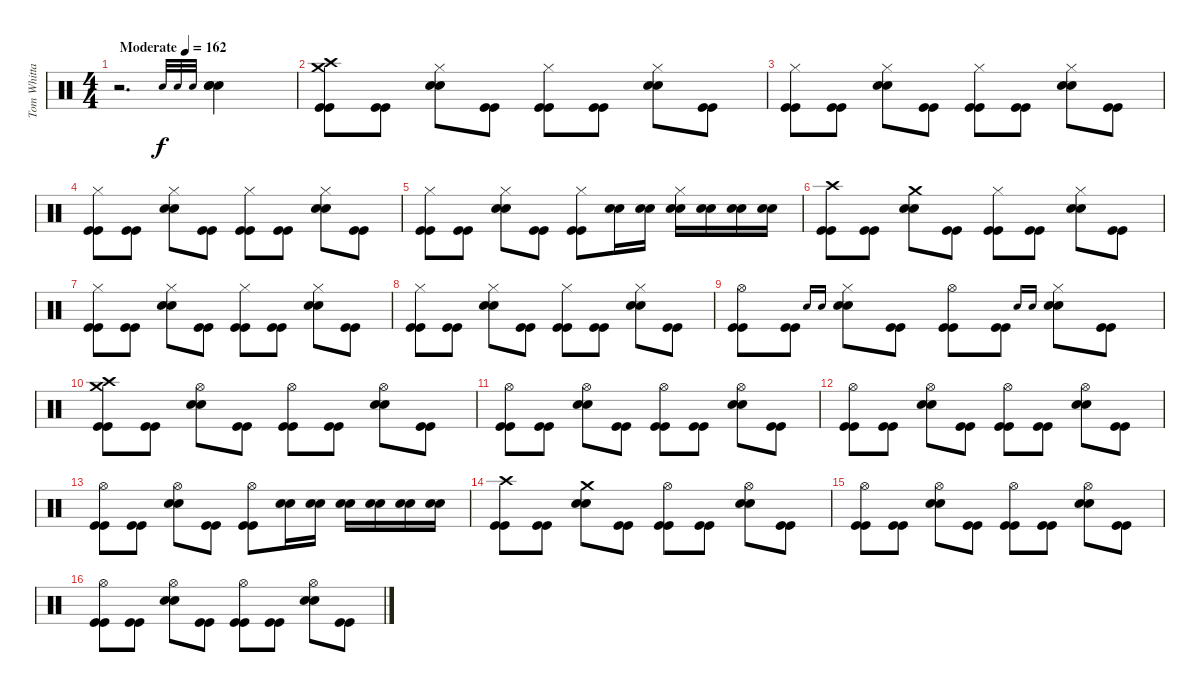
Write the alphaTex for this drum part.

\track ("Tom Whittaker" "Tom Whitta") {instrument percussion}
\staff {score}
\articulation defaults
\ts (4 4)
\tempo (162 "Moderate")
\clef neutral
\ks c
r.2{d dy f} "Electric Snare (hit)".32{gr onbeat} "Electric Snare (hit)".32{gr onbeat} "Electric Snare (hit)".32{gr onbeat} ("Electric Snare (hit)" "Electric Snare (hit)" "Electric Snare (hit)").4 |
("Crash medium (hit)" "Crash high (hit)" "Kick (hit)" "Kick (hit)").8 ("Kick (hit)" "Kick (hit)").8 ("Hi-Hat (closed)" "Electric Snare (hit)" "Electric Snare (hit)").8 ("Kick (hit)" "Kick (hit)").8 ("Hi-Hat (closed)" "Kick (hit)" "Kick (hit)").8 ("Kick (hit)" "Kick (hit)").8 ("Hi-Hat (closed)" "Electric Snare (hit)" "Electric Snare (hit)").8 ("Kick (hit)" "Kick (hit)").8 |
("Hi-Hat (closed)" "Kick (hit)" "Kick (hit)").8 ("Kick (hit)" "Kick (hit)").8 ("Hi-Hat (closed)" "Electric Snare (hit)" "Electric Snare (hit)").8 ("Kick (hit)" "Kick (hit)").8 ("Hi-Hat (closed)" "Kick (hit)" "Kick (hit)").8 ("Kick (hit)" "Kick (hit)").8 ("Hi-Hat (closed)" "Electric Snare (hit)" "Electric Snare (hit)").8 ("Kick (hit)" "Kick (hit)").8 |
("Hi-Hat (closed)" "Kick (hit)" "Kick (hit)").8 ("Kick (hit)" "Kick (hit)").8 ("Hi-Hat (closed)" "Electric Snare (hit)" "Electric Snare (hit)").8 ("Kick (hit)" "Kick (hit)").8 ("Hi-Hat (closed)" "Kick (hit)" "Kick (hit)").8 ("Kick (hit)" "Kick (hit)").8 ("Hi-Hat (closed)" "Electric Snare (hit)" "Electric Snare (hit)").8 ("Kick (hit)" "Kick (hit)").8 |
("Hi-Hat (closed)" "Kick (hit)" "Kick (hit)").8 ("Kick (hit)" "Kick (hit)").8 ("Hi-Hat (closed)" "Electric Snare (hit)" "Electric Snare (hit)").8 ("Kick (hit)" "Kick (hit)").8 ("Hi-Hat (closed)" "Kick (hit)" "Kick (hit)").8 ("Electric Snare (hit)" "Electric Snare (hit)").16 ("Electric Snare (hit)" "Electric Snare (hit)").16 ("Hi-Hat (closed)" "Electric Snare (hit)" "Electric Snare (hit)").16 ("Electric Snare (hit)" "Electric Snare (hit)").16 ("Electric Snare (hit)" "Electric Snare (hit)").16 ("Electric Snare (hit)" "Electric Snare (hit)").16 |
("Crash high (hit)" "Kick (hit)" "Kick (hit)").8 ("Kick (hit)" "Kick (hit)").8 ("Crash medium (hit)" "Electric Snare (hit)" "Electric Snare (hit)").8 ("Kick (hit)" "Kick (hit)").8 ("Hi-Hat (closed)" "Kick (hit)" "Kick (hit)").8 ("Kick (hit)" "Kick (hit)").8 ("Hi-Hat (closed)" "Electric Snare (hit)" "Electric Snare (hit)").8 ("Kick (hit)" "Kick (hit)").8 |
("Hi-Hat (closed)" "Kick (hit)" "Kick (hit)").8 ("Kick (hit)" "Kick (hit)").8 ("Hi-Hat (closed)" "Electric Snare (hit)" "Electric Snare (hit)").8 ("Kick (hit)" "Kick (hit)").8 ("Hi-Hat (closed)" "Kick (hit)" "Kick (hit)").8 ("Kick (hit)" "Kick (hit)").8 ("Hi-Hat (closed)" "Electric Snare (hit)" "Electric Snare (hit)").8 ("Kick (hit)" "Kick (hit)").8 |
("Hi-Hat (closed)" "Kick (hit)" "Kick (hit)").8 ("Kick (hit)" "Kick (hit)").8 ("Hi-Hat (closed)" "Electric Snare (hit)" "Electric Snare (hit)").8 ("Kick (hit)" "Kick (hit)").8 ("Hi-Hat (closed)" "Kick (hit)" "Kick (hit)").8 ("Kick (hit)" "Kick (hit)").8 ("Hi-Hat (closed)" "Electric Snare (hit)" "Electric Snare (hit)").8 ("Kick (hit)" "Kick (hit)").8 |
("Hi-Hat (open)" "Kick (hit)" "Kick (hit)").8 ("Kick (hit)" "Kick (hit)").8 "Electric Snare (hit)".16{gr onbeat} "Electric Snare (hit)".16{gr onbeat} ("Hi-Hat (closed)" "Electric Snare (hit)" "Electric Snare (hit)").8 ("Kick (hit)" "Kick (hit)").8 ("Hi-Hat (open)" "Kick (hit)" "Kick (hit)").8 ("Kick (hit)" "Kick (hit)").8 "Electric Snare (hit)".16{gr onbeat} "Electric Snare (hit)".16{gr onbeat} ("Hi-Hat (closed)" "Electric Snare (hit)" "Electric Snare (hit)").8 ("Kick (hit)" "Kick (hit)").8 |
("Crash medium (hit)" "Crash high (hit)" "Kick (hit)" "Kick (hit)").8 ("Kick (hit)" "Kick (hit)").8 ("Hi-Hat (open)" "Electric Snare (hit)" "Electric Snare (hit)").8 ("Kick (hit)" "Kick (hit)").8 ("Hi-Hat (open)" "Kick (hit)" "Kick (hit)").8 ("Kick (hit)" "Kick (hit)").8 ("Hi-Hat (open)" "Electric Snare (hit)" "Electric Snare (hit)").8 ("Kick (hit)" "Kick (hit)").8 |
("Hi-Hat (open)" "Kick (hit)" "Kick (hit)").8 ("Kick (hit)" "Kick (hit)").8 ("Hi-Hat (open)" "Electric Snare (hit)" "Electric Snare (hit)").8 ("Kick (hit)" "Kick (hit)").8 ("Hi-Hat (open)" "Kick (hit)" "Kick (hit)").8 ("Kick (hit)" "Kick (hit)").8 ("Hi-Hat (open)" "Electric Snare (hit)" "Electric Snare (hit)").8 ("Kick (hit)" "Kick (hit)").8 |
("Hi-Hat (open)" "Kick (hit)" "Kick (hit)").8 ("Kick (hit)" "Kick (hit)").8 ("Hi-Hat (open)" "Electric Snare (hit)" "Electric Snare (hit)").8 ("Kick (hit)" "Kick (hit)").8 ("Hi-Hat (open)" "Kick (hit)" "Kick (hit)").8 ("Kick (hit)" "Kick (hit)").8 ("Hi-Hat (open)" "Electric Snare (hit)" "Electric Snare (hit)").8 ("Kick (hit)" "Kick (hit)").8 |
("Hi-Hat (open)" "Kick (hit)" "Kick (hit)").8 ("Kick (hit)" "Kick (hit)").8 ("Hi-Hat (open)" "Electric Snare (hit)" "Electric Snare (hit)").8 ("Kick (hit)" "Kick (hit)").8 ("Hi-Hat (open)" "Kick (hit)" "Kick (hit)").8 ("Electric Snare (hit)" "Electric Snare (hit)").16 ("Electric Snare (hit)" "Electric Snare (hit)").16 ("Electric Snare (hit)" "Electric Snare (hit)").16 ("Electric Snare (hit)" "Electric Snare (hit)").16 ("Electric Snare (hit)" "Electric Snare (hit)").16 ("Electric Snare (hit)" "Electric Snare (hit)").16 |
("Crash high (hit)" "Kick (hit)" "Kick (hit)").8 ("Kick (hit)" "Kick (hit)").8 ("Crash medium (hit)" "Electric Snare (hit)" "Electric Snare (hit)").8 ("Kick (hit)" "Kick (hit)").8 ("Hi-Hat (open)" "Kick (hit)" "Kick (hit)").8 ("Kick (hit)" "Kick (hit)").8 ("Hi-Hat (open)" "Electric Snare (hit)" "Electric Snare (hit)").8 ("Kick (hit)" "Kick (hit)").8 |
("Hi-Hat (open)" "Kick (hit)" "Kick (hit)").8 ("Kick (hit)" "Kick (hit)").8 ("Hi-Hat (open)" "Electric Snare (hit)" "Electric Snare (hit)").8 ("Kick (hit)" "Kick (hit)").8 ("Hi-Hat (open)" "Kick (hit)" "Kick (hit)").8 ("Kick (hit)" "Kick (hit)").8 ("Hi-Hat (open)" "Electric Snare (hit)" "Electric Snare (hit)").8 ("Kick (hit)" "Kick (hit)").8 |
("Hi-Hat (open)" "Kick (hit)" "Kick (hit)").8 ("Kick (hit)" "Kick (hit)").8 ("Hi-Hat (open)" "Electric Snare (hit)" "Electric Snare (hit)").8 ("Kick (hit)" "Kick (hit)").8 ("Hi-Hat (open)" "Kick (hit)" "Kick (hit)").8 ("Kick (hit)" "Kick (hit)").8 ("Hi-Hat (open)" "Electric Snare (hit)" "Electric Snare (hit)").8 ("Kick (hit)" "Kick (hit)").8
